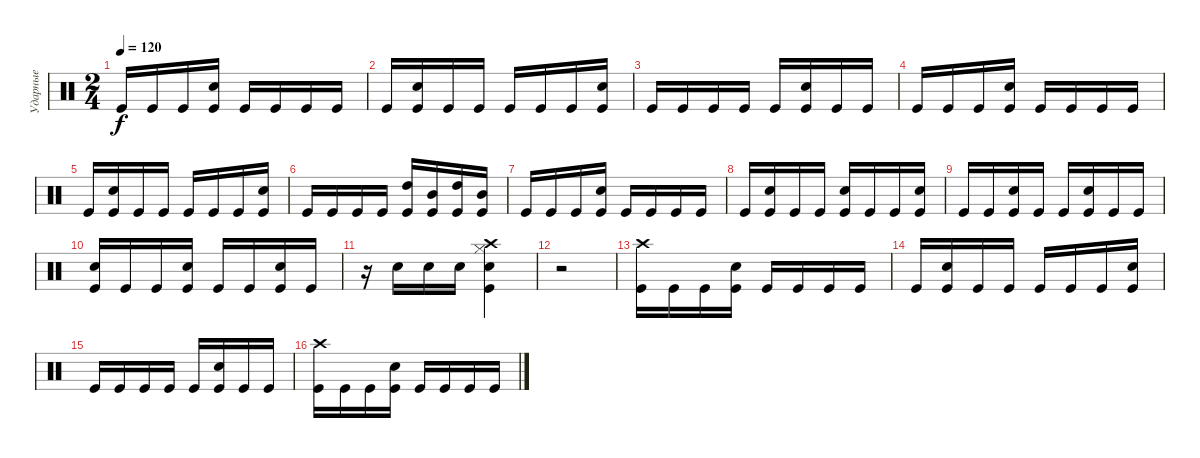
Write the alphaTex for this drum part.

\track ("Ударные" "Ударные") {instrument percussion}
\staff {score}
\articulation defaults
\ts (2 4)
\tempo 120
\clef neutral
\ks c "Kick (hit)".16{dy f} "Kick (hit)".16 "Kick (hit)".16
("Electric Snare (hit)" "Kick (hit)").16 "Kick (hit)".16 "Kick (hit)".16 "Kick (hit)".16 "Kick (hit)".16 |
"Kick (hit)".16 ("Electric Snare (hit)" "Kick (hit)").16 "Kick (hit)".16 "Kick (hit)".16 "Kick (hit)".16 "Kick (hit)".16 "Kick (hit)".16 ("Electric Snare (hit)" "Kick (hit)").16 |
"Kick (hit)".16 "Kick (hit)".16 "Kick (hit)".16 "Kick (hit)".16 "Kick (hit)".16 ("Electric Snare (hit)" "Kick (hit)").16 "Kick (hit)".16 "Kick (hit)".16 |
"Kick (hit)".16 "Kick (hit)".16 "Kick (hit)".16 ("Electric Snare (hit)" "Kick (hit)").16 "Kick (hit)".16 "Kick (hit)".16 "Kick (hit)".16 "Kick (hit)".16 |
"Kick (hit)".16 ("Electric Snare (hit)" "Kick (hit)").16 "Kick (hit)".16 "Kick (hit)".16 "Kick (hit)".16 "Kick (hit)".16 "Kick (hit)".16 ("Electric Snare (hit)" "Kick (hit)").16 |
"Kick (hit)".16 "Kick (hit)".16 "Kick (hit)".16 "Kick (hit)".16 ("High Tom (hit)" "Kick (hit)").16 ("Mid Tom (hit)" "Kick (hit)").16 ("High Tom (hit)" "Kick (hit)").16 ("Mid Tom (hit)" "Kick (hit)").16 |
"Kick (hit)".16 "Kick (hit)".16 "Kick (hit)".16 ("Electric Snare (hit)" "Kick (hit)").16 "Kick (hit)".16 "Kick (hit)".16 "Kick (hit)".16 "Kick (hit)".16 |
"Kick (hit)".16 ("Electric Snare (hit)" "Kick (hit)").16 "Kick (hit)".16 "Kick (hit)".16 ("Electric Snare (hit)" "Kick (hit)").16 "Kick (hit)".16 "Kick (hit)".16 ("Electric Snare (hit)" "Kick (hit)").16 |
"Kick (hit)".16 "Kick (hit)".16 ("Electric Snare (hit)" "Kick (hit)").16 "Kick (hit)".16 "Kick (hit)".16 ("Electric Snare (hit)" "Kick (hit)").16 "Kick (hit)".16 "Kick (hit)".16 |
("Electric Snare (hit)" "Kick (hit)").16 "Kick (hit)".16 "Kick (hit)".16 ("Electric Snare (hit)" "Kick (hit)").16 "Kick (hit)".16 "Kick (hit)".16 ("Electric Snare (hit)" "Kick (hit)").16 "Kick (hit)".16 |
r.16 "Electric Snare (hit)".16 "Electric Snare (hit)".16 "Electric Snare (hit)".16 ("Hi-Hat (closed)" "Crash high (hit)" "Electric Snare (hit)" "Kick (hit)").4 |
r.2 |
("Crash high (hit)" "Kick (hit)").16 "Kick (hit)".16 "Kick (hit)".16 ("Electric Snare (hit)" "Kick (hit)").16 "Kick (hit)".16 "Kick (hit)".16 "Kick (hit)".16 "Kick (hit)".16 |
"Kick (hit)".16 ("Electric Snare (hit)" "Kick (hit)").16 "Kick (hit)".16 "Kick (hit)".16 "Kick (hit)".16 "Kick (hit)".16 "Kick (hit)".16 ("Electric Snare (hit)" "Kick (hit)").16 |
"Kick (hit)".16 "Kick (hit)".16 "Kick (hit)".16 "Kick (hit)".16 "Kick (hit)".16 ("Electric Snare (hit)" "Kick (hit)").16 "Kick (hit)".16 "Kick (hit)".16 |
("Crash high (hit)" "Kick (hit)").16 "Kick (hit)".16 "Kick (hit)".16 ("Electric Snare (hit)" "Kick (hit)").16 "Kick (hit)".16 "Kick (hit)".16 "Kick (hit)".16 "Kick (hit)".16
